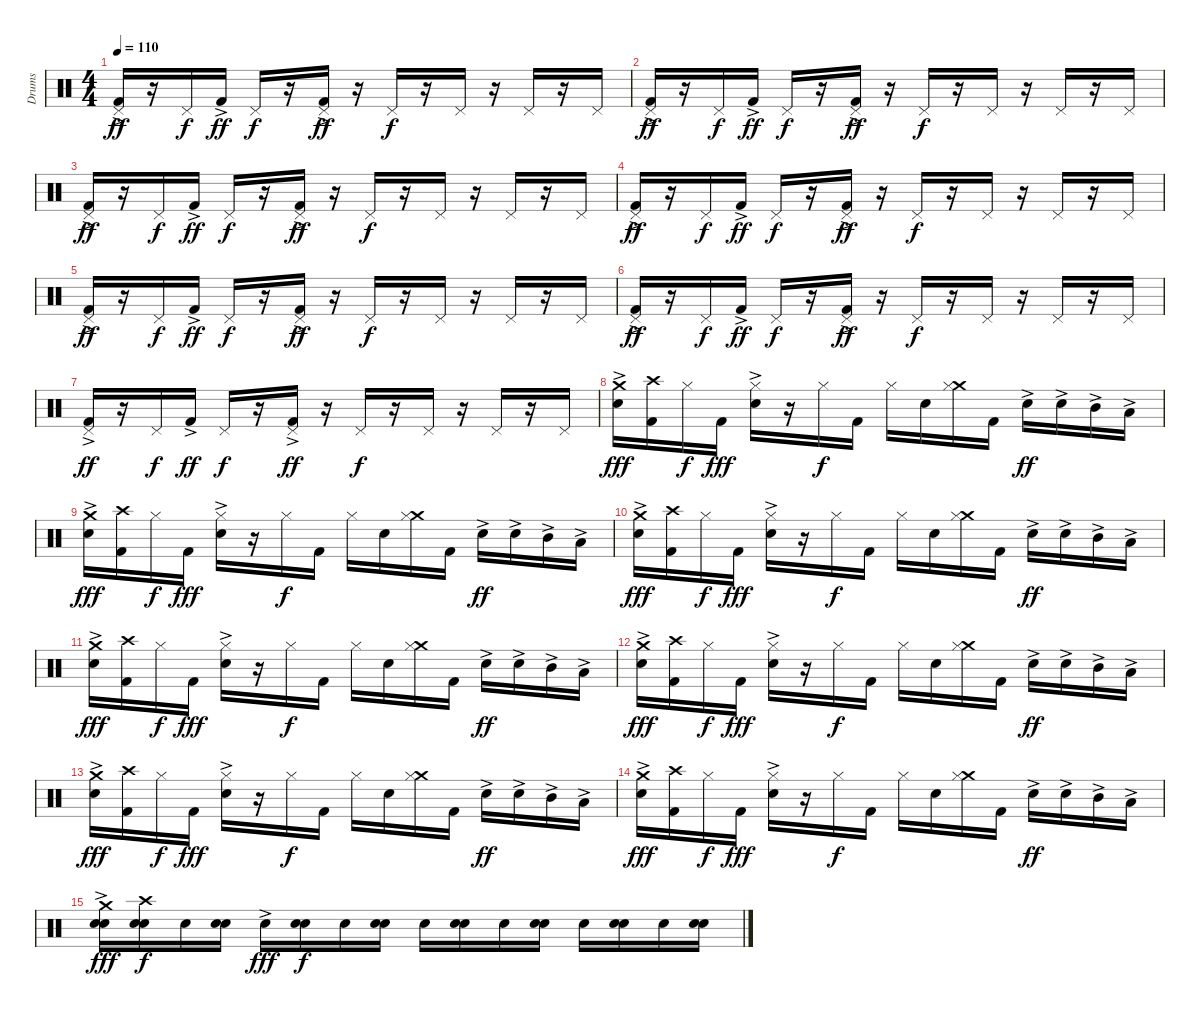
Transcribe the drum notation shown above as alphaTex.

\track ("Drums" "Drums") {instrument percussion}
\staff {score}
\articulation defaults
\ts (4 4)
\tempo 110
\clef neutral
\ks c
("Pedal Hi-Hat (hit)" "Kick (hit) 2"{ac}).16{dy ff} r.16 "Pedal Hi-Hat (hit)".16{dy f} "Kick (hit) 2"{ac}.16{dy ff} "Pedal Hi-Hat (hit)".16{dy f} r.16 ("Pedal Hi-Hat (hit)" "Kick (hit) 2"{ac}).16{dy ff} r.16 "Pedal Hi-Hat (hit)".16{dy f} r.16 "Pedal Hi-Hat (hit)".16 r.16 "Pedal Hi-Hat (hit)".16 r.16 "Pedal Hi-Hat (hit)".16 |
("Pedal Hi-Hat (hit)" "Kick (hit) 2"{ac}).16{dy ff} r.16 "Pedal Hi-Hat (hit)".16{dy f} "Kick (hit) 2"{ac}.16{dy ff} "Pedal Hi-Hat (hit)".16{dy f} r.16 ("Pedal Hi-Hat (hit)" "Kick (hit) 2"{ac}).16{dy ff} r.16 "Pedal Hi-Hat (hit)".16{dy f} r.16 "Pedal Hi-Hat (hit)".16 r.16 "Pedal Hi-Hat (hit)".16 r.16 "Pedal Hi-Hat (hit)".16 |
("Pedal Hi-Hat (hit)" "Kick (hit) 2"{ac}).16{dy ff} r.16 "Pedal Hi-Hat (hit)".16{dy f} "Kick (hit) 2"{ac}.16{dy ff} "Pedal Hi-Hat (hit)".16{dy f} r.16 ("Pedal Hi-Hat (hit)" "Kick (hit) 2"{ac}).16{dy ff} r.16 "Pedal Hi-Hat (hit)".16{dy f} r.16 "Pedal Hi-Hat (hit)".16 r.16 "Pedal Hi-Hat (hit)".16 r.16 "Pedal Hi-Hat (hit)".16 |
("Pedal Hi-Hat (hit)" "Kick (hit) 2"{ac}).16{dy ff} r.16 "Pedal Hi-Hat (hit)".16{dy f} "Kick (hit) 2"{ac}.16{dy ff} "Pedal Hi-Hat (hit)".16{dy f} r.16 ("Pedal Hi-Hat (hit)" "Kick (hit) 2"{ac}).16{dy ff} r.16 "Pedal Hi-Hat (hit)".16{dy f} r.16 "Pedal Hi-Hat (hit)".16 r.16 "Pedal Hi-Hat (hit)".16 r.16 "Pedal Hi-Hat (hit)".16 |
("Pedal Hi-Hat (hit)" "Kick (hit) 2"{ac}).16{dy ff} r.16 "Pedal Hi-Hat (hit)".16{dy f} "Kick (hit) 2"{ac}.16{dy ff} "Pedal Hi-Hat (hit)".16{dy f} r.16 ("Pedal Hi-Hat (hit)" "Kick (hit) 2"{ac}).16{dy ff} r.16 "Pedal Hi-Hat (hit)".16{dy f} r.16 "Pedal Hi-Hat (hit)".16 r.16 "Pedal Hi-Hat (hit)".16 r.16 "Pedal Hi-Hat (hit)".16 |
("Pedal Hi-Hat (hit)" "Kick (hit) 2"{ac}).16{dy ff} r.16 "Pedal Hi-Hat (hit)".16{dy f} "Kick (hit) 2"{ac}.16{dy ff} "Pedal Hi-Hat (hit)".16{dy f} r.16 ("Pedal Hi-Hat (hit)" "Kick (hit) 2"{ac}).16{dy ff} r.16 "Pedal Hi-Hat (hit)".16{dy f} r.16 "Pedal Hi-Hat (hit)".16 r.16 "Pedal Hi-Hat (hit)".16 r.16 "Pedal Hi-Hat (hit)".16 |
("Pedal Hi-Hat (hit)" "Kick (hit) 2"{ac}).16{dy ff} r.16 "Pedal Hi-Hat (hit)".16{dy f} "Kick (hit) 2"{ac}.16{dy ff} "Pedal Hi-Hat (hit)".16{dy f} r.16 ("Pedal Hi-Hat (hit)" "Kick (hit) 2"{ac}).16{dy ff} r.16 "Pedal Hi-Hat (hit)".16{dy f} r.16 "Pedal Hi-Hat (hit)".16 r.16 "Pedal Hi-Hat (hit)".16 r.16 "Pedal Hi-Hat (hit)".16 |
("Crash medium (hit)" "Electric Snare (hit)"{ac}).16{dy fff} ("Crash high (hit)" "Kick (hit) 2").16 "Hi-Hat (closed)".16{dy f} "Kick (hit) 2".16{dy fff} ("Hi-Hat (closed)" "Snare (hit) 2"{ac}).16 r.16 "Hi-Hat (closed)".16{dy f} "Kick (hit) 2".16 "Hi-Hat (closed)".16 "Snare (hit) 2".16 ("Crash medium (hit)" "Hi-Hat (closed)").16 "Kick (hit) 2".16 "Electric Snare (hit)"{ac}.16{dy ff} "Electric Snare (hit)"{ac}.16 "Mid Tom (hit)"{ac}.16 "Low Tom (hit)"{ac}.16 |
("Crash medium (hit)" "Electric Snare (hit)"{ac}).16{dy fff} ("Crash high (hit)" "Kick (hit) 2").16 "Hi-Hat (closed)".16{dy f} "Kick (hit) 2".16{dy fff} ("Hi-Hat (closed)" "Snare (hit) 2"{ac}).16 r.16 "Hi-Hat (closed)".16{dy f} "Kick (hit) 2".16 "Hi-Hat (closed)".16 "Snare (hit) 2".16 ("Crash medium (hit)" "Hi-Hat (closed)").16 "Kick (hit) 2".16 "Electric Snare (hit)"{ac}.16{dy ff} "Electric Snare (hit)"{ac}.16 "Mid Tom (hit)"{ac}.16 "Low Tom (hit)"{ac}.16 |
("Crash medium (hit)" "Electric Snare (hit)"{ac}).16{dy fff} ("Crash high (hit)" "Kick (hit) 2").16 "Hi-Hat (closed)".16{dy f} "Kick (hit) 2".16{dy fff} ("Hi-Hat (closed)" "Snare (hit) 2"{ac}).16 r.16 "Hi-Hat (closed)".16{dy f} "Kick (hit) 2".16 "Hi-Hat (closed)".16 "Snare (hit) 2".16 ("Crash medium (hit)" "Hi-Hat (closed)").16 "Kick (hit) 2".16 "Electric Snare (hit)"{ac}.16{dy ff} "Electric Snare (hit)"{ac}.16 "Mid Tom (hit)"{ac}.16 "Low Tom (hit)"{ac}.16 |
("Crash medium (hit)" "Electric Snare (hit)"{ac}).16{dy fff} ("Crash high (hit)" "Kick (hit) 2").16 "Hi-Hat (closed)".16{dy f} "Kick (hit) 2".16{dy fff} ("Hi-Hat (closed)" "Snare (hit) 2"{ac}).16 r.16 "Hi-Hat (closed)".16{dy f} "Kick (hit) 2".16 "Hi-Hat (closed)".16 "Snare (hit) 2".16 ("Crash medium (hit)" "Hi-Hat (closed)").16 "Kick (hit) 2".16 "Electric Snare (hit)"{ac}.16{dy ff} "Electric Snare (hit)"{ac}.16 "Mid Tom (hit)"{ac}.16 "Low Tom (hit)"{ac}.16 |
("Crash medium (hit)" "Electric Snare (hit)"{ac}).16{dy fff} ("Crash high (hit)" "Kick (hit) 2").16 "Hi-Hat (closed)".16{dy f} "Kick (hit) 2".16{dy fff} ("Hi-Hat (closed)" "Snare (hit) 2"{ac}).16 r.16 "Hi-Hat (closed)".16{dy f} "Kick (hit) 2".16 "Hi-Hat (closed)".16 "Snare (hit) 2".16 ("Crash medium (hit)" "Hi-Hat (closed)").16 "Kick (hit) 2".16 "Electric Snare (hit)"{ac}.16{dy ff} "Electric Snare (hit)"{ac}.16 "Mid Tom (hit)"{ac}.16 "Low Tom (hit)"{ac}.16 |
("Crash medium (hit)" "Electric Snare (hit)"{ac}).16{dy fff} ("Crash high (hit)" "Kick (hit) 2").16 "Hi-Hat (closed)".16{dy f} "Kick (hit) 2".16{dy fff} ("Hi-Hat (closed)" "Snare (hit) 2"{ac}).16 r.16 "Hi-Hat (closed)".16{dy f} "Kick (hit) 2".16 "Hi-Hat (closed)".16 "Snare (hit) 2".16 ("Crash medium (hit)" "Hi-Hat (closed)").16 "Kick (hit) 2".16 "Electric Snare (hit)"{ac}.16{dy ff} "Electric Snare (hit)"{ac}.16 "Mid Tom (hit)"{ac}.16 "Low Tom (hit)"{ac}.16 |
("Crash medium (hit)" "Electric Snare (hit)"{ac}).16{dy fff} ("Crash high (hit)" "Kick (hit) 2").16 "Hi-Hat (closed)".16{dy f} "Kick (hit) 2".16{dy fff} ("Hi-Hat (closed)" "Snare (hit) 2"{ac}).16 r.16 "Hi-Hat (closed)".16{dy f} "Kick (hit) 2".16 "Hi-Hat (closed)".16 "Snare (hit) 2".16 ("Crash medium (hit)" "Hi-Hat (closed)").16 "Kick (hit) 2".16 "Electric Snare (hit)"{ac}.16{dy ff} "Electric Snare (hit)"{ac}.16 "Mid Tom (hit)"{ac}.16 "Low Tom (hit)"{ac}.16 |
("Crash medium (hit)" "Snare (hit) 2" "Electric Snare (hit)"{ac}).16{dy fff} ("Crash high (hit)" "Snare (hit) 2" "Electric Snare (hit)").16{dy f} "Electric Snare (hit)".16 ("Snare (hit) 2" "Electric Snare (hit)").16 "Electric Snare (hit)"{ac}.16{dy fff} ("Snare (hit) 2" "Electric Snare (hit)").16{dy f} "Electric Snare (hit)".16 ("Snare (hit) 2" "Electric Snare (hit)").16 "Electric Snare (hit)".16 ("Snare (hit) 2" "Snare (hit) 2").16 "Electric Snare (hit)".16 ("Snare (hit) 2" "Electric Snare (hit)").16 "Electric Snare (hit)".16 ("Snare (hit) 2" "Electric Snare (hit)").16 "Electric Snare (hit)".16 ("Snare (hit) 2" "Electric Snare (hit)").16
